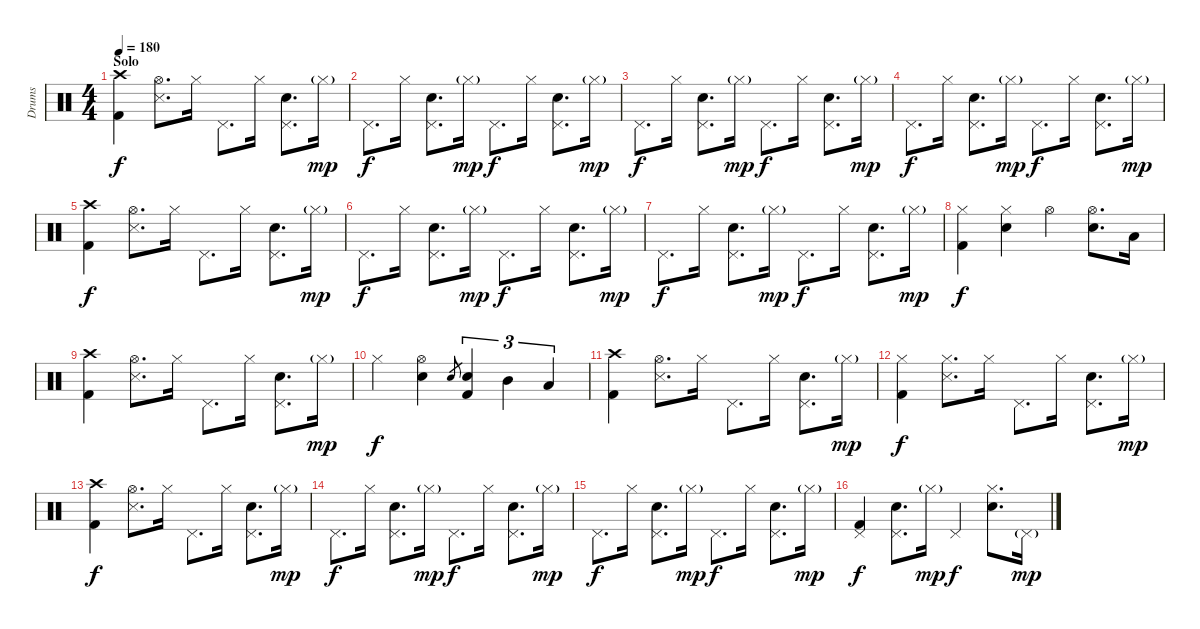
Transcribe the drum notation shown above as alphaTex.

\track ("Drums" "Drums") {instrument percussion}
\staff {score}
\articulation defaults
\ts (4 4)
\section ("" "Solo")
\tempo 180
\clef neutral
\ks c
("Crash high (hit)" "Kick (hit) 2").4{dy f} ("Hi-Hat (open)" "Snare (side stick) 3").8{d} "Hi-Hat (closed)".16 "Pedal Hi-Hat (hit)".8{d} "Hi-Hat (closed)".16 ("Pedal Hi-Hat (hit)" "Snare (hit) 2").8{d} "Hi-Hat (closed)"{g}.16{dy mp} |
"Pedal Hi-Hat (hit)".8{d dy f} "Hi-Hat (closed)".16 ("Pedal Hi-Hat (hit)" "Snare (hit) 2").8{d} "Hi-Hat (closed)"{g}.16{dy mp} "Pedal Hi-Hat (hit)".8{d dy f} "Hi-Hat (closed)".16 ("Pedal Hi-Hat (hit)" "Snare (hit) 2").8{d} "Hi-Hat (closed)"{g}.16{dy mp} |
"Pedal Hi-Hat (hit)".8{d dy f} "Hi-Hat (closed)".16 ("Pedal Hi-Hat (hit)" "Snare (hit) 2").8{d} "Hi-Hat (closed)"{g}.16{dy mp} "Pedal Hi-Hat (hit)".8{d dy f} "Hi-Hat (closed)".16 ("Pedal Hi-Hat (hit)" "Snare (hit) 2").8{d} "Hi-Hat (closed)"{g}.16{dy mp} |
"Pedal Hi-Hat (hit)".8{d dy f} "Hi-Hat (closed)".16 ("Pedal Hi-Hat (hit)" "Snare (hit) 2").8{d} "Hi-Hat (closed)"{g}.16{dy mp} "Pedal Hi-Hat (hit)".8{d dy f} "Hi-Hat (closed)".16 ("Pedal Hi-Hat (hit)" "Snare (hit) 2").8{d} "Hi-Hat (closed)"{g}.16{dy mp} |
("Crash high (hit)" "Kick (hit) 2").4{dy f} ("Hi-Hat (open)" "Snare (side stick) 3").8{d} "Hi-Hat (closed)".16 "Pedal Hi-Hat (hit)".8{d} "Hi-Hat (closed)".16 ("Pedal Hi-Hat (hit)" "Snare (hit) 2").8{d} "Hi-Hat (closed)"{g}.16{dy mp} |
"Pedal Hi-Hat (hit)".8{d dy f} "Hi-Hat (closed)".16 ("Pedal Hi-Hat (hit)" "Snare (hit) 2").8{d} "Hi-Hat (closed)"{g}.16{dy mp} "Pedal Hi-Hat (hit)".8{d dy f} "Hi-Hat (closed)".16 ("Pedal Hi-Hat (hit)" "Snare (hit) 2").8{d} "Hi-Hat (closed)"{g}.16{dy mp} |
"Pedal Hi-Hat (hit)".8{d dy f} "Hi-Hat (closed)".16 ("Pedal Hi-Hat (hit)" "Snare (hit) 2").8{d} "Hi-Hat (closed)"{g}.16{dy mp} "Pedal Hi-Hat (hit)".8{d dy f} "Hi-Hat (closed)".16 ("Pedal Hi-Hat (hit)" "Snare (hit) 2").8{d} "Hi-Hat (closed)"{g}.16{dy mp} |
("Hi-Hat (closed)" "Kick (hit) 2").4{dy f} ("Hi-Hat (closed)" "Snare (hit) 2").4 "Hi-Hat (open)".4 ("Hi-Hat (open)" "Snare (hit) 2").8{d} "Low Tom (hit)".16 |
("Crash high (hit)" "Kick (hit) 2").4 ("Hi-Hat (open)" "Snare (side stick) 3").8{d} "Hi-Hat (closed)".16 "Pedal Hi-Hat (hit)".8{d} "Hi-Hat (closed)".16 ("Pedal Hi-Hat (hit)" "Snare (hit) 2").8{d} "Hi-Hat (closed)"{g}.16{dy mp} |
"Hi-Hat (closed)".4{dy f} ("Hi-Hat (open)" "Snare (hit) 2").4 "Snare (hit) 2".8{gr} ("Snare (hit) 2" "Kick (hit) 2").4{tu (3 2)} "Mid Tom (hit)".4{tu (3 2)} "Low Tom (hit)".4{tu (3 2)} |
("Crash high (hit)" "Kick (hit) 2").4 ("Hi-Hat (open)" "Snare (side stick) 3").8{d} "Hi-Hat (closed)".16 "Pedal Hi-Hat (hit)".8{d} "Hi-Hat (closed)".16 ("Pedal Hi-Hat (hit)" "Snare (hit) 2").8{d} "Hi-Hat (closed)"{g}.16{dy mp} |
("Hi-Hat (closed)" "Kick (hit) 2").4{dy f} ("Hi-Hat (closed)" "Snare (side stick) 3").8{d} "Hi-Hat (closed)".16 "Pedal Hi-Hat (hit)".8{d} "Hi-Hat (closed)".16 ("Pedal Hi-Hat (hit)" "Snare (hit) 2").8{d} "Hi-Hat (closed)"{g}.16{dy mp} |
("Crash high (hit)" "Kick (hit) 2").4{dy f} ("Hi-Hat (open)" "Snare (side stick) 3").8{d} "Hi-Hat (closed)".16 "Pedal Hi-Hat (hit)".8{d} "Hi-Hat (closed)".16 ("Pedal Hi-Hat (hit)" "Snare (hit) 2").8{d} "Hi-Hat (closed)"{g}.16{dy mp} |
"Pedal Hi-Hat (hit)".8{d dy f} "Hi-Hat (closed)".16 ("Pedal Hi-Hat (hit)" "Snare (hit) 2").8{d} "Hi-Hat (closed)"{g}.16{dy mp} "Pedal Hi-Hat (hit)".8{d dy f} "Hi-Hat (closed)".16 ("Pedal Hi-Hat (hit)" "Snare (hit) 2").8{d} "Hi-Hat (closed)"{g}.16{dy mp} |
"Pedal Hi-Hat (hit)".8{d dy f} "Hi-Hat (closed)".16 ("Pedal Hi-Hat (hit)" "Snare (hit) 2").8{d} "Hi-Hat (closed)"{g}.16{dy mp} "Pedal Hi-Hat (hit)".8{d dy f} "Hi-Hat (closed)".16 ("Pedal Hi-Hat (hit)" "Snare (hit) 2").8{d} "Hi-Hat (closed)"{g}.16{dy mp} |
("Pedal Hi-Hat (hit)" "Kick (hit) 2").4{dy f} ("Pedal Hi-Hat (hit)" "Snare (hit) 2").8{d} "Hi-Hat (closed)"{g}.16{dy mp} "Pedal Hi-Hat (hit)".4{dy f} ("Hi-Hat (closed)" "Snare (hit) 2").8{d} "Pedal Hi-Hat (hit)"{g}.16{dy mp}
